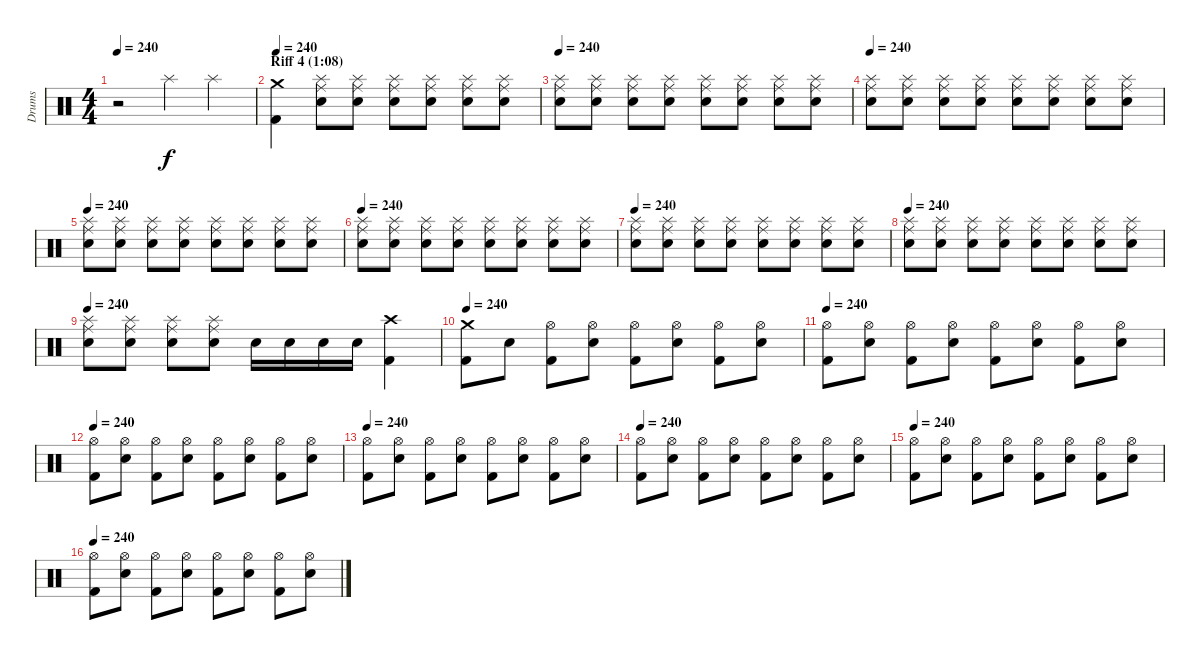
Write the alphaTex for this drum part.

\track ("Drums" "Drums") {instrument percussion}
\staff {score}
\articulation defaults
\ts (4 4)
\tempo 240
\clef neutral
\ks c
r.2{dy ppp} "Splash (hit)".4{dy f} "Splash (hit)".4 |
\section ("" "Riff 4 (1:08)")
\tempo 240
("Crash medium (hit)" "Kick (hit) 2").4 ("Ride (middle)" "Splash (hit)" "Electric Snare (hit)").8 ("Ride (middle)" "Splash (hit)" "Electric Snare (hit)").8 ("Ride (middle)" "Splash (hit)" "Electric Snare (hit)").8 ("Ride (middle)" "Splash (hit)" "Electric Snare (hit)").8 ("Ride (middle)" "Splash (hit)" "Electric Snare (hit)").8 ("Ride (middle)" "Splash (hit)" "Electric Snare (hit)").8 |
\tempo 240
("Ride (middle)" "Splash (hit)" "Electric Snare (hit)").8 ("Ride (middle)" "Splash (hit)" "Electric Snare (hit)").8 ("Ride (middle)" "Splash (hit)" "Electric Snare (hit)").8 ("Ride (middle)" "Splash (hit)" "Electric Snare (hit)").8 ("Ride (middle)" "Splash (hit)" "Electric Snare (hit)").8 ("Ride (middle)" "Splash (hit)" "Electric Snare (hit)").8 ("Ride (middle)" "Splash (hit)" "Electric Snare (hit)").8 ("Ride (middle)" "Splash (hit)" "Electric Snare (hit)").8 |
\tempo 240
("Ride (middle)" "Splash (hit)" "Electric Snare (hit)").8 ("Ride (middle)" "Splash (hit)" "Electric Snare (hit)").8 ("Ride (middle)" "Splash (hit)" "Electric Snare (hit)").8 ("Ride (middle)" "Splash (hit)" "Electric Snare (hit)").8 ("Ride (middle)" "Splash (hit)" "Electric Snare (hit)").8 ("Ride (middle)" "Splash (hit)" "Electric Snare (hit)").8 ("Ride (middle)" "Splash (hit)" "Electric Snare (hit)").8 ("Ride (middle)" "Splash (hit)" "Electric Snare (hit)").8 |
\tempo 240
("Ride (middle)" "Splash (hit)" "Electric Snare (hit)").8 ("Ride (middle)" "Splash (hit)" "Electric Snare (hit)").8 ("Ride (middle)" "Splash (hit)" "Electric Snare (hit)").8 ("Ride (middle)" "Splash (hit)" "Electric Snare (hit)").8 ("Ride (middle)" "Splash (hit)" "Electric Snare (hit)").8 ("Ride (middle)" "Splash (hit)" "Electric Snare (hit)").8 ("Ride (middle)" "Splash (hit)" "Electric Snare (hit)").8 ("Ride (middle)" "Splash (hit)" "Electric Snare (hit)").8 |
\tempo 240
("Ride (middle)" "Splash (hit)" "Electric Snare (hit)").8 ("Ride (middle)" "Splash (hit)" "Electric Snare (hit)").8 ("Ride (middle)" "Splash (hit)" "Electric Snare (hit)").8 ("Ride (middle)" "Splash (hit)" "Electric Snare (hit)").8 ("Ride (middle)" "Splash (hit)" "Electric Snare (hit)").8 ("Ride (middle)" "Splash (hit)" "Electric Snare (hit)").8 ("Ride (middle)" "Splash (hit)" "Electric Snare (hit)").8 ("Ride (middle)" "Splash (hit)" "Electric Snare (hit)").8 |
\tempo 240
("Ride (middle)" "Splash (hit)" "Electric Snare (hit)").8 ("Ride (middle)" "Splash (hit)" "Electric Snare (hit)").8 ("Ride (middle)" "Splash (hit)" "Electric Snare (hit)").8 ("Ride (middle)" "Splash (hit)" "Electric Snare (hit)").8 ("Ride (middle)" "Splash (hit)" "Electric Snare (hit)").8 ("Ride (middle)" "Splash (hit)" "Electric Snare (hit)").8 ("Ride (middle)" "Splash (hit)" "Electric Snare (hit)").8 ("Ride (middle)" "Splash (hit)" "Electric Snare (hit)").8 |
\tempo 240
("Ride (middle)" "Splash (hit)" "Electric Snare (hit)").8 ("Ride (middle)" "Splash (hit)" "Electric Snare (hit)").8 ("Ride (middle)" "Splash (hit)" "Electric Snare (hit)").8 ("Ride (middle)" "Splash (hit)" "Electric Snare (hit)").8 ("Ride (middle)" "Splash (hit)" "Electric Snare (hit)").8 ("Ride (middle)" "Splash (hit)" "Electric Snare (hit)").8 ("Ride (middle)" "Splash (hit)" "Electric Snare (hit)").8 ("Ride (middle)" "Splash (hit)" "Electric Snare (hit)").8 |
\tempo 240
("Ride (middle)" "Splash (hit)" "Electric Snare (hit)").8 ("Ride (middle)" "Splash (hit)" "Electric Snare (hit)").8 ("Ride (middle)" "Splash (hit)" "Electric Snare (hit)").8 ("Ride (middle)" "Splash (hit)" "Electric Snare (hit)").8 "Electric Snare (hit)".16 "Electric Snare (hit)".16 "Electric Snare (hit)".16 "Electric Snare (hit)".16 ("Crash high (hit)" "Kick (hit) 2").4 |
\tempo 240
("Crash medium (hit)" "Kick (hit) 2").8 "Electric Snare (hit)".8 ("Hi-Hat (open)" "Kick (hit) 2").8 ("Hi-Hat (open)" "Electric Snare (hit)").8 ("Hi-Hat (open)" "Kick (hit) 2").8 ("Hi-Hat (open)" "Electric Snare (hit)").8 ("Hi-Hat (open)" "Kick (hit) 2").8 ("Hi-Hat (open)" "Electric Snare (hit)").8 |
\tempo 240
("Hi-Hat (open)" "Kick (hit) 2").8 ("Hi-Hat (open)" "Electric Snare (hit)").8 ("Hi-Hat (open)" "Kick (hit) 2").8 ("Hi-Hat (open)" "Electric Snare (hit)").8 ("Hi-Hat (open)" "Kick (hit) 2").8 ("Hi-Hat (open)" "Electric Snare (hit)").8 ("Hi-Hat (open)" "Kick (hit) 2").8 ("Hi-Hat (open)" "Electric Snare (hit)").8 |
\tempo 240
("Hi-Hat (open)" "Kick (hit) 2").8 ("Hi-Hat (open)" "Electric Snare (hit)").8 ("Hi-Hat (open)" "Kick (hit) 2").8 ("Hi-Hat (open)" "Electric Snare (hit)").8 ("Hi-Hat (open)" "Kick (hit) 2").8 ("Hi-Hat (open)" "Electric Snare (hit)").8 ("Hi-Hat (open)" "Kick (hit) 2").8 ("Hi-Hat (open)" "Electric Snare (hit)").8 |
\tempo 240
("Hi-Hat (open)" "Kick (hit) 2").8 ("Hi-Hat (open)" "Electric Snare (hit)").8 ("Hi-Hat (open)" "Kick (hit) 2").8 ("Hi-Hat (open)" "Electric Snare (hit)").8 ("Hi-Hat (open)" "Kick (hit) 2").8 ("Hi-Hat (open)" "Electric Snare (hit)").8 ("Hi-Hat (open)" "Kick (hit) 2").8 ("Hi-Hat (open)" "Electric Snare (hit)").8 |
\tempo 240
("Hi-Hat (open)" "Kick (hit) 2").8 ("Hi-Hat (open)" "Electric Snare (hit)").8 ("Hi-Hat (open)" "Kick (hit) 2").8 ("Hi-Hat (open)" "Electric Snare (hit)").8 ("Hi-Hat (open)" "Kick (hit) 2").8 ("Hi-Hat (open)" "Electric Snare (hit)").8 ("Hi-Hat (open)" "Kick (hit) 2").8 ("Hi-Hat (open)" "Electric Snare (hit)").8 |
\tempo 240
("Hi-Hat (open)" "Kick (hit) 2").8 ("Hi-Hat (open)" "Electric Snare (hit)").8 ("Hi-Hat (open)" "Kick (hit) 2").8 ("Hi-Hat (open)" "Electric Snare (hit)").8 ("Hi-Hat (open)" "Kick (hit) 2").8 ("Hi-Hat (open)" "Electric Snare (hit)").8 ("Hi-Hat (open)" "Kick (hit) 2").8 ("Hi-Hat (open)" "Electric Snare (hit)").8 |
\tempo 240
("Hi-Hat (open)" "Kick (hit) 2").8 ("Hi-Hat (open)" "Electric Snare (hit)").8 ("Hi-Hat (open)" "Kick (hit) 2").8 ("Hi-Hat (open)" "Electric Snare (hit)").8 ("Hi-Hat (open)" "Kick (hit) 2").8 ("Hi-Hat (open)" "Electric Snare (hit)").8 ("Hi-Hat (open)" "Kick (hit) 2").8 ("Hi-Hat (open)" "Electric Snare (hit)").8
